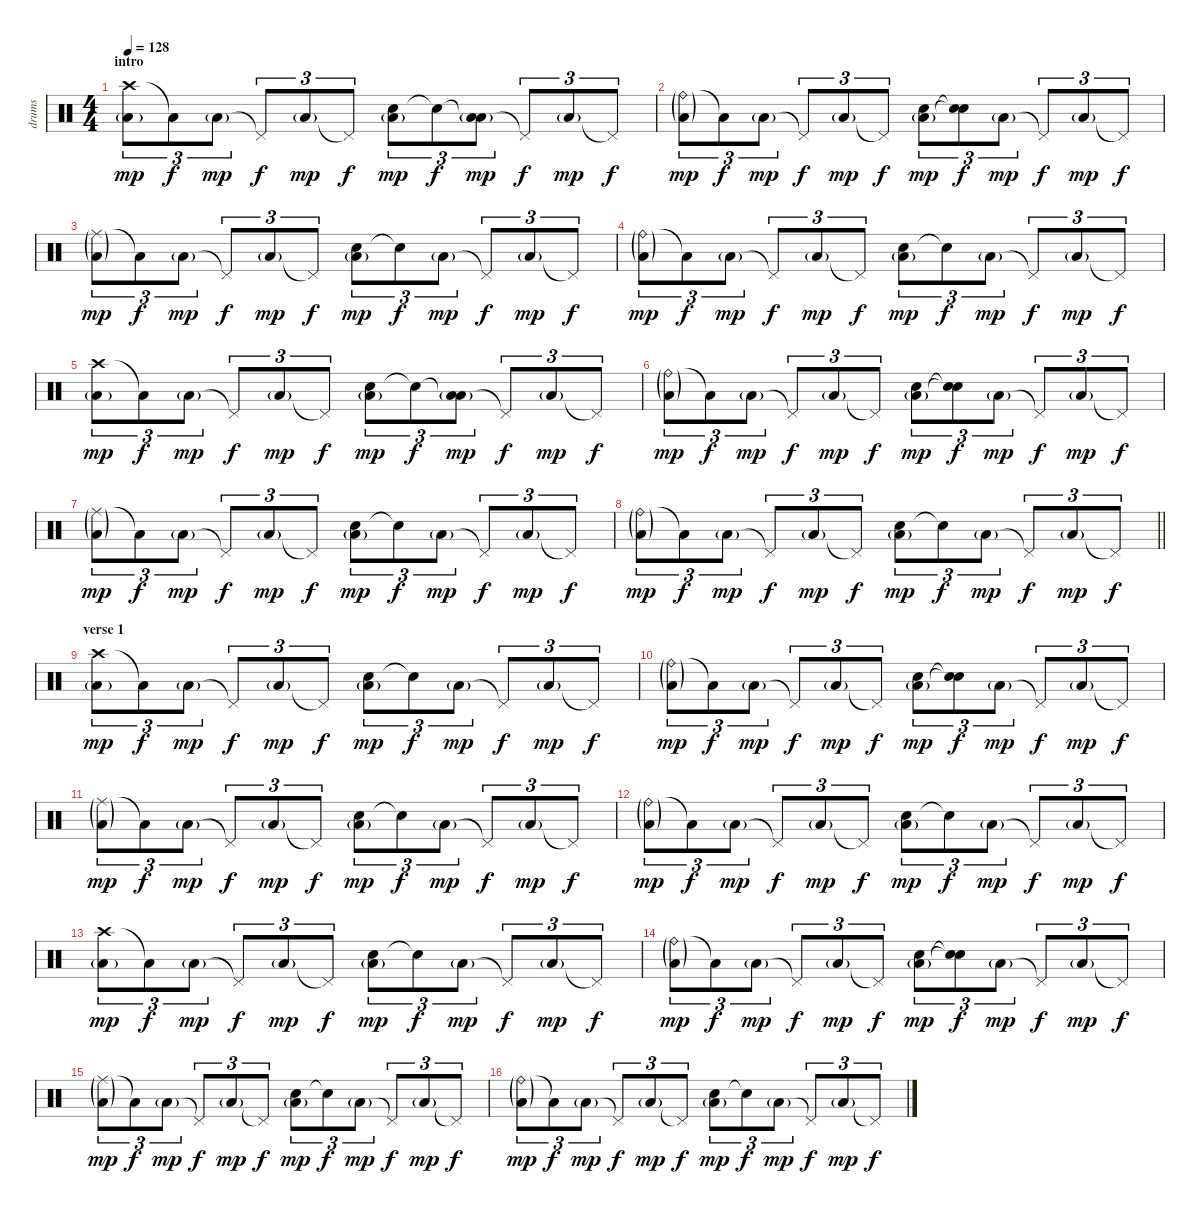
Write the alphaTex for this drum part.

\track ("drums" "drums") {instrument percussion}
\staff {score}
\articulation defaults
\ts (4 4)
\section ("" "intro")
\tempo 128
\clef neutral
\ks c
("Crash high (hit)" "Low Floor Tom (hit)"{g}).8{tu (3 2) dy mp} "Low Floor Tom (hit)"{t}.8{tu (3 2) dy f} "Low Floor Tom (hit)"{g}.8{tu (3 2) dy mp} "Pedal Hi-Hat (hit)"{t}.8{tu (3 2) dy f} "Low Floor Tom (hit)"{g}.8{tu (3 2) dy mp} "Pedal Hi-Hat (hit)"{t}.8{tu (3 2) dy f} ("Electric Snare (hit)" "Low Floor Tom (hit)"{g}).8{tu (3 2) dy mp} "Electric Snare (hit)"{t}.8{tu (3 2) dy f} ("Low Floor Tom (hit)"{t} "Low Floor Tom (hit)"{g}).8{tu (3 2) dy mp} "Pedal Hi-Hat (hit)"{t}.8{tu (3 2) dy f} "Low Floor Tom (hit)"{g}.8{tu (3 2) dy mp} "Pedal Hi-Hat (hit)"{t}.8{tu (3 2) dy f} |
("Ride (bell)"{g} "Low Floor Tom (hit)"{g}).8{tu (3 2) dy mp} "Low Floor Tom (hit)"{t}.8{tu (3 2) dy f} "Low Floor Tom (hit)"{g}.8{tu (3 2) dy mp} "Pedal Hi-Hat (hit)"{t}.8{tu (3 2) dy f} "Low Floor Tom (hit)"{g}.8{tu (3 2) dy mp} "Pedal Hi-Hat (hit)"{t}.8{tu (3 2) dy f} ("Electric Snare (hit)" "Low Floor Tom (hit)"{g}).8{tu (3 2) dy mp} ("Electric Snare (hit)"{t} "Snare (hit)"{t}).8{tu (3 2) dy f} "Low Floor Tom (hit)"{g}.8{tu (3 2) dy mp} "Pedal Hi-Hat (hit)"{t}.8{tu (3 2) dy f} "Low Floor Tom (hit)"{g}.8{tu (3 2) dy mp} "Pedal Hi-Hat (hit)"{t}.8{tu (3 2) dy f} |
("Ride (middle)"{g} "Low Floor Tom (hit)"{g}).8{tu (3 2) dy mp} "Low Floor Tom (hit)"{t}.8{tu (3 2) dy f} "Low Floor Tom (hit)"{g}.8{tu (3 2) dy mp} "Pedal Hi-Hat (hit)"{t}.8{tu (3 2) dy f} "Low Floor Tom (hit)"{g}.8{tu (3 2) dy mp} "Pedal Hi-Hat (hit)"{t}.8{tu (3 2) dy f} ("Electric Snare (hit)" "Low Floor Tom (hit)"{g}).8{tu (3 2) dy mp} "Electric Snare (hit)"{t}.8{tu (3 2) dy f} "Low Floor Tom (hit)"{g}.8{tu (3 2) dy mp} "Pedal Hi-Hat (hit)"{t}.8{tu (3 2) dy f} "Low Floor Tom (hit)"{g}.8{tu (3 2) dy mp} "Pedal Hi-Hat (hit)"{t}.8{tu (3 2) dy f} |
("Ride (bell)"{g} "Low Floor Tom (hit)"{g}).8{tu (3 2) dy mp} "Low Floor Tom (hit)"{t}.8{tu (3 2) dy f} "Low Floor Tom (hit)"{g}.8{tu (3 2) dy mp} "Pedal Hi-Hat (hit)"{t}.8{tu (3 2) dy f} "Low Floor Tom (hit)"{g}.8{tu (3 2) dy mp} "Pedal Hi-Hat (hit)"{t}.8{tu (3 2) dy f} ("Electric Snare (hit)" "Low Floor Tom (hit)"{g}).8{tu (3 2) dy mp} "Electric Snare (hit)"{t}.8{tu (3 2) dy f} "Low Floor Tom (hit)"{g}.8{tu (3 2) dy mp} "Pedal Hi-Hat (hit)"{t}.8{tu (3 2) dy f} "Low Floor Tom (hit)"{g}.8{tu (3 2) dy mp} "Pedal Hi-Hat (hit)"{t}.8{tu (3 2) dy f} |
("Crash high (hit)" "Low Floor Tom (hit)"{g}).8{tu (3 2) dy mp} "Low Floor Tom (hit)"{t}.8{tu (3 2) dy f} "Low Floor Tom (hit)"{g}.8{tu (3 2) dy mp} "Pedal Hi-Hat (hit)"{t}.8{tu (3 2) dy f} "Low Floor Tom (hit)"{g}.8{tu (3 2) dy mp} "Pedal Hi-Hat (hit)"{t}.8{tu (3 2) dy f} ("Electric Snare (hit)" "Low Floor Tom (hit)"{g}).8{tu (3 2) dy mp} "Electric Snare (hit)"{t}.8{tu (3 2) dy f} ("Low Floor Tom (hit)"{t} "Low Floor Tom (hit)"{g}).8{tu (3 2) dy mp} "Pedal Hi-Hat (hit)"{t}.8{tu (3 2) dy f} "Low Floor Tom (hit)"{g}.8{tu (3 2) dy mp} "Pedal Hi-Hat (hit)"{t}.8{tu (3 2) dy f} |
("Ride (bell)"{g} "Low Floor Tom (hit)"{g}).8{tu (3 2) dy mp} "Low Floor Tom (hit)"{t}.8{tu (3 2) dy f} "Low Floor Tom (hit)"{g}.8{tu (3 2) dy mp} "Pedal Hi-Hat (hit)"{t}.8{tu (3 2) dy f} "Low Floor Tom (hit)"{g}.8{tu (3 2) dy mp} "Pedal Hi-Hat (hit)"{t}.8{tu (3 2) dy f} ("Electric Snare (hit)" "Low Floor Tom (hit)"{g}).8{tu (3 2) dy mp} ("Electric Snare (hit)"{t} "Snare (hit)"{t}).8{tu (3 2) dy f} "Low Floor Tom (hit)"{g}.8{tu (3 2) dy mp} "Pedal Hi-Hat (hit)"{t}.8{tu (3 2) dy f} "Low Floor Tom (hit)"{g}.8{tu (3 2) dy mp} "Pedal Hi-Hat (hit)"{t}.8{tu (3 2) dy f} |
("Ride (middle)"{g} "Low Floor Tom (hit)"{g}).8{tu (3 2) dy mp} "Low Floor Tom (hit)"{t}.8{tu (3 2) dy f} "Low Floor Tom (hit)"{g}.8{tu (3 2) dy mp} "Pedal Hi-Hat (hit)"{t}.8{tu (3 2) dy f} "Low Floor Tom (hit)"{g}.8{tu (3 2) dy mp} "Pedal Hi-Hat (hit)"{t}.8{tu (3 2) dy f} ("Electric Snare (hit)" "Low Floor Tom (hit)"{g}).8{tu (3 2) dy mp} "Electric Snare (hit)"{t}.8{tu (3 2) dy f} "Low Floor Tom (hit)"{g}.8{tu (3 2) dy mp} "Pedal Hi-Hat (hit)"{t}.8{tu (3 2) dy f} "Low Floor Tom (hit)"{g}.8{tu (3 2) dy mp} "Pedal Hi-Hat (hit)"{t}.8{tu (3 2) dy f} |
\barLineRight lightlight
("Ride (bell)"{g} "Low Floor Tom (hit)"{g}).8{tu (3 2) dy mp} "Low Floor Tom (hit)"{t}.8{tu (3 2) dy f} "Low Floor Tom (hit)"{g}.8{tu (3 2) dy mp} "Pedal Hi-Hat (hit)"{t}.8{tu (3 2) dy f} "Low Floor Tom (hit)"{g}.8{tu (3 2) dy mp} "Pedal Hi-Hat (hit)"{t}.8{tu (3 2) dy f} ("Electric Snare (hit)" "Low Floor Tom (hit)"{g}).8{tu (3 2) dy mp} "Electric Snare (hit)"{t}.8{tu (3 2) dy f} "Low Floor Tom (hit)"{g}.8{tu (3 2) dy mp} "Pedal Hi-Hat (hit)"{t}.8{tu (3 2) dy f} "Low Floor Tom (hit)"{g}.8{tu (3 2) dy mp} "Pedal Hi-Hat (hit)"{t}.8{tu (3 2) dy f} |
\section ("" "verse 1")
("Crash high (hit)" "Low Floor Tom (hit)"{g}).8{tu (3 2) dy mp} "Low Floor Tom (hit)"{t}.8{tu (3 2) dy f} "Low Floor Tom (hit)"{g}.8{tu (3 2) dy mp} "Pedal Hi-Hat (hit)"{t}.8{tu (3 2) dy f} "Low Floor Tom (hit)"{g}.8{tu (3 2) dy mp} "Pedal Hi-Hat (hit)"{t}.8{tu (3 2) dy f} ("Electric Snare (hit)" "Low Floor Tom (hit)"{g}).8{tu (3 2) dy mp} "Electric Snare (hit)"{t}.8{tu (3 2) dy f} "Low Floor Tom (hit)"{g}.8{tu (3 2) dy mp} "Pedal Hi-Hat (hit)"{t}.8{tu (3 2) dy f} "Low Floor Tom (hit)"{g}.8{tu (3 2) dy mp} "Pedal Hi-Hat (hit)"{t}.8{tu (3 2) dy f} |
("Ride (bell)"{g} "Low Floor Tom (hit)"{g}).8{tu (3 2) dy mp} "Low Floor Tom (hit)"{t}.8{tu (3 2) dy f} "Low Floor Tom (hit)"{g}.8{tu (3 2) dy mp} "Pedal Hi-Hat (hit)"{t}.8{tu (3 2) dy f} "Low Floor Tom (hit)"{g}.8{tu (3 2) dy mp} "Pedal Hi-Hat (hit)"{t}.8{tu (3 2) dy f} ("Electric Snare (hit)" "Low Floor Tom (hit)"{g}).8{tu (3 2) dy mp} ("Electric Snare (hit)"{t} "Snare (hit)"{t}).8{tu (3 2) dy f} "Low Floor Tom (hit)"{g}.8{tu (3 2) dy mp} "Pedal Hi-Hat (hit)"{t}.8{tu (3 2) dy f} "Low Floor Tom (hit)"{g}.8{tu (3 2) dy mp} "Pedal Hi-Hat (hit)"{t}.8{tu (3 2) dy f} |
("Ride (middle)"{g} "Low Floor Tom (hit)"{g}).8{tu (3 2) dy mp} "Low Floor Tom (hit)"{t}.8{tu (3 2) dy f} "Low Floor Tom (hit)"{g}.8{tu (3 2) dy mp} "Pedal Hi-Hat (hit)"{t}.8{tu (3 2) dy f} "Low Floor Tom (hit)"{g}.8{tu (3 2) dy mp} "Pedal Hi-Hat (hit)"{t}.8{tu (3 2) dy f} ("Electric Snare (hit)" "Low Floor Tom (hit)"{g}).8{tu (3 2) dy mp} "Electric Snare (hit)"{t}.8{tu (3 2) dy f} "Low Floor Tom (hit)"{g}.8{tu (3 2) dy mp} "Pedal Hi-Hat (hit)"{t}.8{tu (3 2) dy f} "Low Floor Tom (hit)"{g}.8{tu (3 2) dy mp} "Pedal Hi-Hat (hit)"{t}.8{tu (3 2) dy f} |
("Ride (bell)"{g} "Low Floor Tom (hit)"{g}).8{tu (3 2) dy mp} "Low Floor Tom (hit)"{t}.8{tu (3 2) dy f} "Low Floor Tom (hit)"{g}.8{tu (3 2) dy mp} "Pedal Hi-Hat (hit)"{t}.8{tu (3 2) dy f} "Low Floor Tom (hit)"{g}.8{tu (3 2) dy mp} "Pedal Hi-Hat (hit)"{t}.8{tu (3 2) dy f} ("Electric Snare (hit)" "Low Floor Tom (hit)"{g}).8{tu (3 2) dy mp} "Electric Snare (hit)"{t}.8{tu (3 2) dy f} "Low Floor Tom (hit)"{g}.8{tu (3 2) dy mp} "Pedal Hi-Hat (hit)"{t}.8{tu (3 2) dy f} "Low Floor Tom (hit)"{g}.8{tu (3 2) dy mp} "Pedal Hi-Hat (hit)"{t}.8{tu (3 2) dy f} |
("Crash high (hit)" "Low Floor Tom (hit)"{g}).8{tu (3 2) dy mp} "Low Floor Tom (hit)"{t}.8{tu (3 2) dy f} "Low Floor Tom (hit)"{g}.8{tu (3 2) dy mp} "Pedal Hi-Hat (hit)"{t}.8{tu (3 2) dy f} "Low Floor Tom (hit)"{g}.8{tu (3 2) dy mp} "Pedal Hi-Hat (hit)"{t}.8{tu (3 2) dy f} ("Electric Snare (hit)" "Low Floor Tom (hit)"{g}).8{tu (3 2) dy mp} "Electric Snare (hit)"{t}.8{tu (3 2) dy f} "Low Floor Tom (hit)"{g}.8{tu (3 2) dy mp} "Pedal Hi-Hat (hit)"{t}.8{tu (3 2) dy f} "Low Floor Tom (hit)"{g}.8{tu (3 2) dy mp} "Pedal Hi-Hat (hit)"{t}.8{tu (3 2) dy f} |
("Ride (bell)"{g} "Low Floor Tom (hit)"{g}).8{tu (3 2) dy mp} "Low Floor Tom (hit)"{t}.8{tu (3 2) dy f} "Low Floor Tom (hit)"{g}.8{tu (3 2) dy mp} "Pedal Hi-Hat (hit)"{t}.8{tu (3 2) dy f} "Low Floor Tom (hit)"{g}.8{tu (3 2) dy mp} "Pedal Hi-Hat (hit)"{t}.8{tu (3 2) dy f} ("Electric Snare (hit)" "Low Floor Tom (hit)"{g}).8{tu (3 2) dy mp} ("Electric Snare (hit)"{t} "Snare (hit)"{t}).8{tu (3 2) dy f} "Low Floor Tom (hit)"{g}.8{tu (3 2) dy mp} "Pedal Hi-Hat (hit)"{t}.8{tu (3 2) dy f} "Low Floor Tom (hit)"{g}.8{tu (3 2) dy mp} "Pedal Hi-Hat (hit)"{t}.8{tu (3 2) dy f} |
("Ride (middle)"{g} "Low Floor Tom (hit)"{g}).8{tu (3 2) dy mp} "Low Floor Tom (hit)"{t}.8{tu (3 2) dy f} "Low Floor Tom (hit)"{g}.8{tu (3 2) dy mp} "Pedal Hi-Hat (hit)"{t}.8{tu (3 2) dy f} "Low Floor Tom (hit)"{g}.8{tu (3 2) dy mp} "Pedal Hi-Hat (hit)"{t}.8{tu (3 2) dy f} ("Electric Snare (hit)" "Low Floor Tom (hit)"{g}).8{tu (3 2) dy mp} "Electric Snare (hit)"{t}.8{tu (3 2) dy f} "Low Floor Tom (hit)"{g}.8{tu (3 2) dy mp} "Pedal Hi-Hat (hit)"{t}.8{tu (3 2) dy f} "Low Floor Tom (hit)"{g}.8{tu (3 2) dy mp} "Pedal Hi-Hat (hit)"{t}.8{tu (3 2) dy f} |
("Ride (bell)"{g} "Low Floor Tom (hit)"{g}).8{tu (3 2) dy mp} "Low Floor Tom (hit)"{t}.8{tu (3 2) dy f} "Low Floor Tom (hit)"{g}.8{tu (3 2) dy mp} "Pedal Hi-Hat (hit)"{t}.8{tu (3 2) dy f} "Low Floor Tom (hit)"{g}.8{tu (3 2) dy mp} "Pedal Hi-Hat (hit)"{t}.8{tu (3 2) dy f} ("Electric Snare (hit)" "Low Floor Tom (hit)"{g}).8{tu (3 2) dy mp} "Electric Snare (hit)"{t}.8{tu (3 2) dy f} "Low Floor Tom (hit)"{g}.8{tu (3 2) dy mp} "Pedal Hi-Hat (hit)"{t}.8{tu (3 2) dy f} "Low Floor Tom (hit)"{g}.8{tu (3 2) dy mp} "Pedal Hi-Hat (hit)"{t}.8{tu (3 2) dy f}
